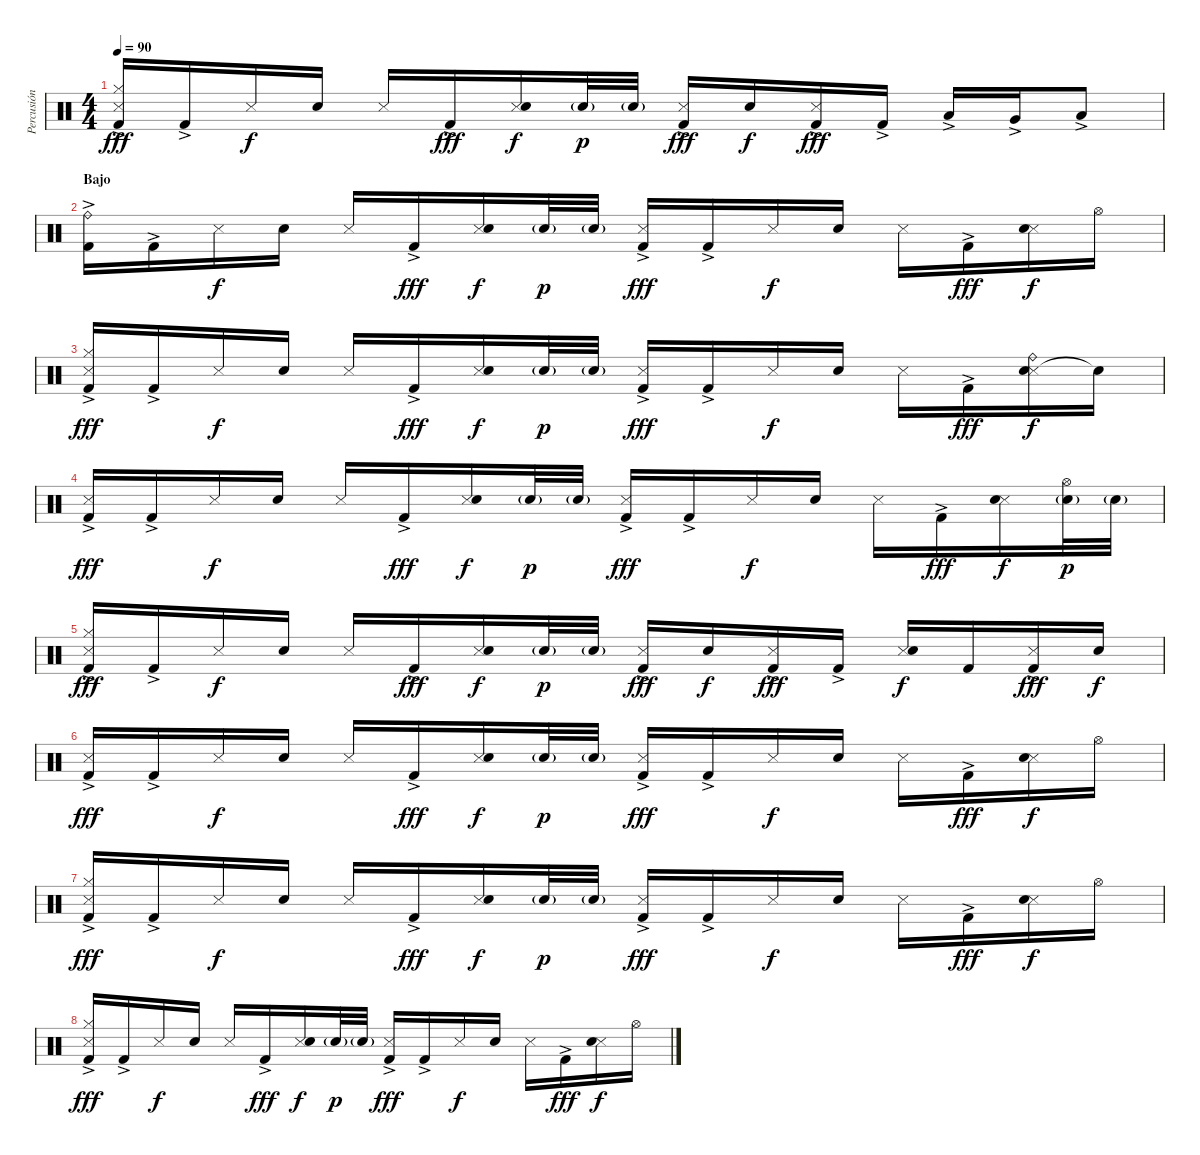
\track ("Percusión" "Percusión") {instrument percussion}
\staff {score}
\articulation defaults
\ts (4 4)
\tempo 90
\clef neutral
\ks c
("Snare (side stick) 3" "Hi-Hat (closed)" "Kick (hit) 2"{ac}).16{dy fff} "Kick (hit) 2"{ac}.16 "Snare (side stick) 3".16{dy f} "Electric Snare (hit)".16 "Snare (side stick) 3".16 "Kick (hit) 2"{ac}.16{dy fff} ("Snare (side stick) 3" "Electric Snare (hit)").16{dy f} "Electric Snare (hit)"{g}.32{dy p} "Electric Snare (hit)"{g}.32 ("Snare (side stick) 3" "Kick (hit) 2"{ac}).16{dy fff} "Electric Snare (hit)".16{dy f} ("Snare (side stick) 3" "Kick (hit) 2"{ac}).16{dy fff} "Kick (hit) 2"{ac}.16 "Low Tom (hit)"{ac}.16 "Very Low Tom (hit)"{ac}.16 "Low Floor Tom (hit)"{ac}.8 |
\section ("" "Bajo")
("Ride (bell)" "Kick (hit) 2"{ac}).16 "Kick (hit) 2"{ac}.16 "Snare (side stick) 3".16{dy f} "Electric Snare (hit)".16 "Snare (side stick) 3".16 "Kick (hit) 2"{ac}.16{dy fff} ("Snare (side stick) 3" "Electric Snare (hit)").16{dy f} "Electric Snare (hit)"{g}.32{dy p} "Electric Snare (hit)"{g}.32 ("Snare (side stick) 3" "Kick (hit) 2"{ac}).16{dy fff} "Kick (hit) 2"{ac}.16 "Snare (side stick) 3".16{dy f} "Electric Snare (hit)".16 "Snare (side stick) 3".16 "Kick (hit) 2"{ac}.16{dy fff} ("Snare (side stick) 3" "Electric Snare (hit)").16{dy f} "Hi-Hat (open)".16 |
("Snare (side stick) 3" "Hi-Hat (closed)" "Kick (hit) 2"{ac}).16{dy fff} "Kick (hit) 2"{ac}.16 "Snare (side stick) 3".16{dy f} "Electric Snare (hit)".16 "Snare (side stick) 3".16 "Kick (hit) 2"{ac}.16{dy fff} ("Snare (side stick) 3" "Electric Snare (hit)").16{dy f} "Electric Snare (hit)"{g}.32{dy p} "Electric Snare (hit)"{g}.32 ("Snare (side stick) 3" "Kick (hit) 2"{ac}).16{dy fff} "Kick (hit) 2"{ac}.16 "Snare (side stick) 3".16{dy f} "Electric Snare (hit)".16 "Snare (side stick) 3".16 "Kick (hit) 2"{ac}.16{dy fff} ("Snare (side stick) 3" "Ride (bell)" "Electric Snare (hit)").16{dy f} "Snare (hit)"{t}.16 |
("Snare (side stick) 3" "Kick (hit) 2"{ac}).16{dy fff} "Kick (hit) 2"{ac}.16 "Snare (side stick) 3".16{dy f} "Electric Snare (hit)".16 "Snare (side stick) 3".16 "Kick (hit) 2"{ac}.16{dy fff} ("Snare (side stick) 3" "Electric Snare (hit)").16{dy f} "Electric Snare (hit)"{g}.32{dy p} "Electric Snare (hit)"{g}.32 ("Snare (side stick) 3" "Kick (hit) 2"{ac}).16{dy fff} "Kick (hit) 2"{ac}.16 "Snare (side stick) 3".16{dy f} "Electric Snare (hit)".16 "Snare (side stick) 3".16 "Kick (hit) 2"{ac}.16{dy fff} ("Snare (side stick) 3" "Electric Snare (hit)").16{dy f} ("Hi-Hat (open)" "Electric Snare (hit)"{g}).32{dy p} "Electric Snare (hit)"{g}.32 |
("Snare (side stick) 3" "Hi-Hat (closed)" "Kick (hit) 2"{ac}).16{dy fff} "Kick (hit) 2"{ac}.16 "Snare (side stick) 3".16{dy f} "Electric Snare (hit)".16 "Snare (side stick) 3".16 "Kick (hit) 2"{ac}.16{dy fff} ("Snare (side stick) 3" "Electric Snare (hit)").16{dy f} "Electric Snare (hit)"{g}.32{dy p} "Electric Snare (hit)"{g}.32 ("Snare (side stick) 3" "Kick (hit) 2"{ac}).16{dy fff} "Electric Snare (hit)".16{dy f} ("Snare (side stick) 3" "Kick (hit) 2"{ac}).16{dy fff} "Kick (hit) 2"{ac}.16 ("Snare (side stick) 3" "Electric Snare (hit)").16{dy f} "Kick (hit) 2".16 ("Snare (side stick) 3" "Kick (hit) 2"{ac}).16{dy fff} "Electric Snare (hit)".16{dy f} |
("Snare (side stick) 3" "Kick (hit) 2"{ac}).16{dy fff} "Kick (hit) 2"{ac}.16 "Snare (side stick) 3".16{dy f} "Electric Snare (hit)".16 "Snare (side stick) 3".16 "Kick (hit) 2"{ac}.16{dy fff} ("Snare (side stick) 3" "Electric Snare (hit)").16{dy f} "Electric Snare (hit)"{g}.32{dy p} "Electric Snare (hit)"{g}.32 ("Snare (side stick) 3" "Kick (hit) 2"{ac}).16{dy fff} "Kick (hit) 2"{ac}.16 "Snare (side stick) 3".16{dy f} "Electric Snare (hit)".16 "Snare (side stick) 3".16 "Kick (hit) 2"{ac}.16{dy fff} ("Snare (side stick) 3" "Electric Snare (hit)").16{dy f} "Hi-Hat (open)".16 |
("Snare (side stick) 3" "Hi-Hat (closed)" "Kick (hit) 2"{ac}).16{dy fff} "Kick (hit) 2"{ac}.16 "Snare (side stick) 3".16{dy f} "Electric Snare (hit)".16 "Snare (side stick) 3".16 "Kick (hit) 2"{ac}.16{dy fff} ("Snare (side stick) 3" "Electric Snare (hit)").16{dy f} "Electric Snare (hit)"{g}.32{dy p} "Electric Snare (hit)"{g}.32 ("Snare (side stick) 3" "Kick (hit) 2"{ac}).16{dy fff} "Kick (hit) 2"{ac}.16 "Snare (side stick) 3".16{dy f} "Electric Snare (hit)".16 "Snare (side stick) 3".16 "Kick (hit) 2"{ac}.16{dy fff} ("Snare (side stick) 3" "Electric Snare (hit)").16{dy f} "Hi-Hat (open)".16 |
("Snare (side stick) 3" "Hi-Hat (closed)" "Kick (hit) 2"{ac}).16{dy fff} "Kick (hit) 2"{ac}.16 "Snare (side stick) 3".16{dy f} "Electric Snare (hit)".16 "Snare (side stick) 3".16 "Kick (hit) 2"{ac}.16{dy fff} ("Snare (side stick) 3" "Electric Snare (hit)").16{dy f} "Electric Snare (hit)"{g}.32{dy p} "Electric Snare (hit)"{g}.32 ("Snare (side stick) 3" "Kick (hit) 2"{ac}).16{dy fff} "Kick (hit) 2"{ac}.16 "Snare (side stick) 3".16{dy f} "Electric Snare (hit)".16 "Snare (side stick) 3".16 "Kick (hit) 2"{ac}.16{dy fff} ("Snare (side stick) 3" "Electric Snare (hit)").16{dy f} "Hi-Hat (open)".16
